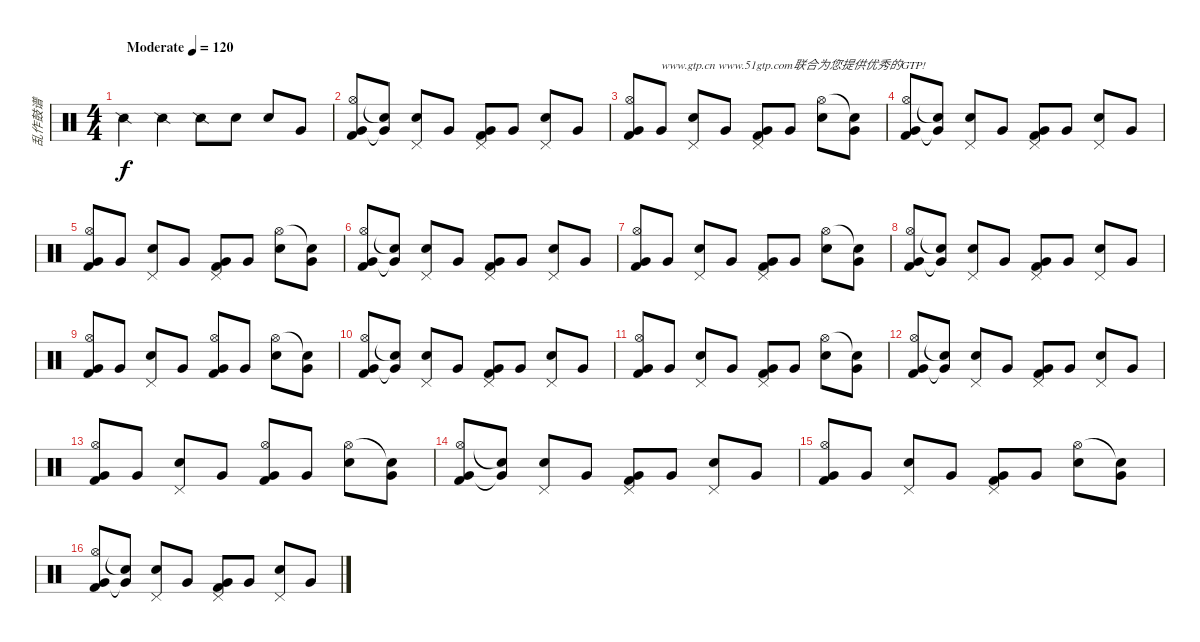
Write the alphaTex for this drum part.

\track ("乱作鼓谱" "乱作鼓谱") {instrument percussion}
\staff {score}
\articulation defaults
\ts (4 4)
\tempo (120 "Moderate")
\clef neutral
\ks c "Snare (side stick) 2".4{dy f} "Snare (side stick) 2".4 "Snare (side stick) 2".8 "Snare (hit) 2".8 "Snare (hit) 2".8 "Very Low Tom (hit)".8
|
("Hi-Hat (open)" "Very Low Tom (hit)" "Kick (hit) 2").8 ("Snare (hit)"{t} "Very Low Tom (hit)"{t}).8 ("Pedal Hi-Hat (hit)" "Snare (hit) 2").8 "Very Low Tom (hit)".8 ("Pedal Hi-Hat (hit)" "Very Low Tom (hit)" "Kick (hit) 2").8 "Very Low Tom (hit)".8 ("Pedal Hi-Hat (hit)" "Snare (hit) 2").8 "Very Low Tom (hit)".8 |
("Hi-Hat (open)" "Very Low Tom (hit)" "Kick (hit) 2").8 "Very Low Tom (hit)".8{txt "www.gtp.cn www.51gtp.com联合为您提供优秀的GTP!"} ("Pedal Hi-Hat (hit)" "Snare (hit) 2").8 "Very Low Tom (hit)".8 ("Pedal Hi-Hat (hit)" "Very Low Tom (hit)" "Kick (hit) 2").8 "Very Low Tom (hit)".8 ("Hi-Hat (open)" "Snare (hit) 2").8 ("Snare (hit)"{t} "Very Low Tom (hit)").8 |
("Hi-Hat (open)" "Very Low Tom (hit)" "Kick (hit) 2").8 ("Snare (hit)"{t} "Very Low Tom (hit)"{t}).8 ("Pedal Hi-Hat (hit)" "Snare (hit) 2").8 "Very Low Tom (hit)".8 ("Pedal Hi-Hat (hit)" "Very Low Tom (hit)" "Kick (hit) 2").8 "Very Low Tom (hit)".8 ("Pedal Hi-Hat (hit)" "Snare (hit) 2").8 "Very Low Tom (hit)".8 |
("Hi-Hat (open)" "Very Low Tom (hit)" "Kick (hit) 2").8 "Very Low Tom (hit)".8 ("Pedal Hi-Hat (hit)" "Snare (hit) 2").8 "Very Low Tom (hit)".8 ("Pedal Hi-Hat (hit)" "Very Low Tom (hit)" "Kick (hit) 2").8 "Very Low Tom (hit)".8 ("Hi-Hat (open)" "Snare (hit) 2").8 ("Snare (hit)"{t} "Very Low Tom (hit)").8 |
("Hi-Hat (open)" "Very Low Tom (hit)" "Kick (hit) 2").8 ("Snare (hit)"{t} "Very Low Tom (hit)"{t}).8 ("Pedal Hi-Hat (hit)" "Snare (hit) 2").8 "Very Low Tom (hit)".8 ("Pedal Hi-Hat (hit)" "Very Low Tom (hit)" "Kick (hit) 2").8 "Very Low Tom (hit)".8 ("Pedal Hi-Hat (hit)" "Snare (hit) 2").8 "Very Low Tom (hit)".8 |
("Hi-Hat (open)" "Very Low Tom (hit)" "Kick (hit) 2").8 "Very Low Tom (hit)".8 ("Pedal Hi-Hat (hit)" "Snare (hit) 2").8 "Very Low Tom (hit)".8 ("Pedal Hi-Hat (hit)" "Very Low Tom (hit)" "Kick (hit) 2").8 "Very Low Tom (hit)".8 ("Hi-Hat (open)" "Snare (hit) 2").8 ("Snare (hit)"{t} "Very Low Tom (hit)").8 |
("Hi-Hat (open)" "Very Low Tom (hit)" "Kick (hit) 2").8 ("Snare (hit)"{t} "Very Low Tom (hit)"{t}).8 ("Pedal Hi-Hat (hit)" "Snare (hit) 2").8 "Very Low Tom (hit)".8 ("Pedal Hi-Hat (hit)" "Very Low Tom (hit)" "Kick (hit) 2").8 "Very Low Tom (hit)".8 ("Pedal Hi-Hat (hit)" "Snare (hit) 2").8 "Very Low Tom (hit)".8 |
("Hi-Hat (open)" "Very Low Tom (hit)" "Kick (hit) 2").8 "Very Low Tom (hit)".8 ("Pedal Hi-Hat (hit)" "Snare (hit) 2").8 "Very Low Tom (hit)".8 ("Hi-Hat (open)" "Very Low Tom (hit)" "Kick (hit) 2").8 "Very Low Tom (hit)".8 ("Hi-Hat (open)" "Snare (hit) 2").8 ("Snare (hit)"{t} "Very Low Tom (hit)").8 |
("Hi-Hat (open)" "Very Low Tom (hit)" "Kick (hit) 2").8 ("Snare (hit)"{t} "Very Low Tom (hit)"{t}).8 ("Pedal Hi-Hat (hit)" "Snare (hit) 2").8 "Very Low Tom (hit)".8 ("Pedal Hi-Hat (hit)" "Very Low Tom (hit)" "Kick (hit) 2").8 "Very Low Tom (hit)".8 ("Pedal Hi-Hat (hit)" "Snare (hit) 2").8 "Very Low Tom (hit)".8 |
("Hi-Hat (open)" "Very Low Tom (hit)" "Kick (hit) 2").8 "Very Low Tom (hit)".8 ("Pedal Hi-Hat (hit)" "Snare (hit) 2").8 "Very Low Tom (hit)".8 ("Pedal Hi-Hat (hit)" "Very Low Tom (hit)" "Kick (hit) 2").8 "Very Low Tom (hit)".8 ("Hi-Hat (open)" "Snare (hit) 2").8 ("Snare (hit)"{t} "Very Low Tom (hit)").8 |
("Hi-Hat (open)" "Very Low Tom (hit)" "Kick (hit) 2").8 ("Snare (hit)"{t} "Very Low Tom (hit)"{t}).8 ("Pedal Hi-Hat (hit)" "Snare (hit) 2").8 "Very Low Tom (hit)".8 ("Pedal Hi-Hat (hit)" "Very Low Tom (hit)" "Kick (hit) 2").8 "Very Low Tom (hit)".8 ("Pedal Hi-Hat (hit)" "Snare (hit) 2").8 "Very Low Tom (hit)".8 |
("Hi-Hat (open)" "Very Low Tom (hit)" "Kick (hit) 2").8 "Very Low Tom (hit)".8 ("Pedal Hi-Hat (hit)" "Snare (hit) 2").8 "Very Low Tom (hit)".8 ("Hi-Hat (open)" "Very Low Tom (hit)" "Kick (hit) 2").8 "Very Low Tom (hit)".8 ("Hi-Hat (open)" "Snare (hit) 2").8 ("Snare (hit)"{t} "Very Low Tom (hit)").8 |
("Hi-Hat (open)" "Very Low Tom (hit)" "Kick (hit) 2").8 ("Snare (hit)"{t} "Very Low Tom (hit)"{t}).8 ("Pedal Hi-Hat (hit)" "Snare (hit) 2").8 "Very Low Tom (hit)".8 ("Pedal Hi-Hat (hit)" "Very Low Tom (hit)" "Kick (hit) 2").8 "Very Low Tom (hit)".8 ("Pedal Hi-Hat (hit)" "Snare (hit) 2").8 "Very Low Tom (hit)".8 |
("Hi-Hat (open)" "Very Low Tom (hit)" "Kick (hit) 2").8 "Very Low Tom (hit)".8 ("Pedal Hi-Hat (hit)" "Snare (hit) 2").8 "Very Low Tom (hit)".8 ("Pedal Hi-Hat (hit)" "Very Low Tom (hit)" "Kick (hit) 2").8 "Very Low Tom (hit)".8 ("Hi-Hat (open)" "Snare (hit) 2").8 ("Snare (hit)"{t} "Very Low Tom (hit)").8 |
("Hi-Hat (open)" "Very Low Tom (hit)" "Kick (hit) 2").8 ("Snare (hit)"{t} "Very Low Tom (hit)"{t}).8 ("Pedal Hi-Hat (hit)" "Snare (hit) 2").8 "Very Low Tom (hit)".8 ("Pedal Hi-Hat (hit)" "Very Low Tom (hit)" "Kick (hit) 2").8 "Very Low Tom (hit)".8 ("Pedal Hi-Hat (hit)" "Snare (hit) 2").8 "Very Low Tom (hit)".8
